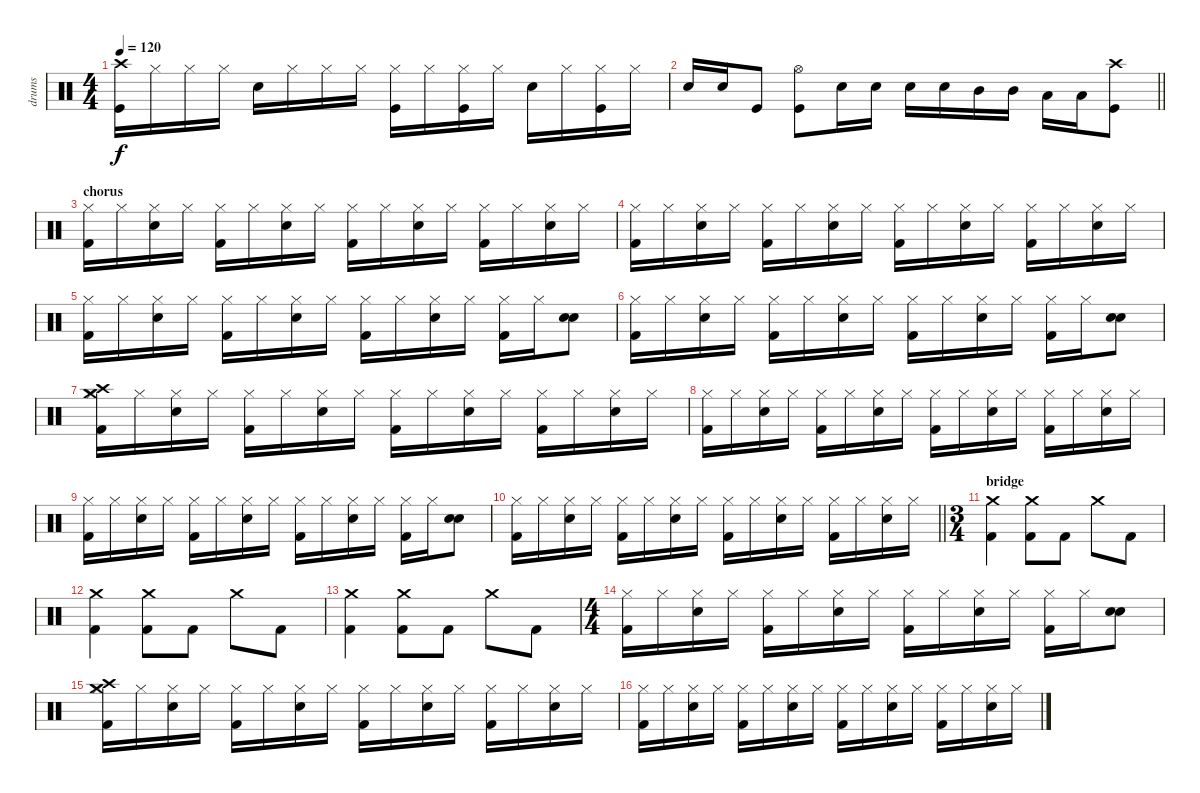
\track ("drums" "drums") {instrument percussion}
\staff {score}
\articulation defaults
\ts (4 4)
\tempo 120
\clef neutral
\ks c
("Crash high (hit)" "Kick (hit)").16{dy f} "Hi-Hat (closed)".16 "Hi-Hat (closed)".16 "Hi-Hat (closed)".16 "Snare (hit) 2".16 "Hi-Hat (closed)".16 "Hi-Hat (closed)".16 "Hi-Hat (closed)".16 ("Hi-Hat (closed)" "Kick (hit)").16 "Hi-Hat (closed)".16 ("Hi-Hat (closed)" "Kick (hit)").16 "Hi-Hat (closed)".16 "Snare (hit) 2".16 "Hi-Hat (closed)".16 ("Hi-Hat (closed)" "Kick (hit)").16 "Hi-Hat (closed)".16 |
\barLineRight lightlight "Snare (hit) 2".16 "Snare (hit) 2".16 "Kick (hit)".8
("Hi-Hat (open)" "Kick (hit)").8 "Snare (hit) 2".16 "Snare (hit) 2".16 "Snare (hit) 2".16 "Snare (hit) 2".16 "Mid Tom (hit)".16 "Mid Tom (hit)".16 "Low Tom (hit)".16 "Low Tom (hit)".16 ("Crash high (hit)" "Kick (hit)").8 |
\section ("" "chorus")
("Hi-Hat (closed)" "Kick (hit) 2").16 "Hi-Hat (closed)".16 ("Hi-Hat (closed)" "Electric Snare (hit)").16 "Hi-Hat (closed)".16 ("Hi-Hat (closed)" "Kick (hit) 2").16 "Hi-Hat (closed)".16 ("Hi-Hat (closed)" "Electric Snare (hit)").16 "Hi-Hat (closed)".16 ("Hi-Hat (closed)" "Kick (hit) 2").16 "Hi-Hat (closed)".16 ("Hi-Hat (closed)" "Electric Snare (hit)").16 "Hi-Hat (closed)".16 ("Hi-Hat (closed)" "Kick (hit) 2").16 "Hi-Hat (closed)".16 ("Hi-Hat (closed)" "Electric Snare (hit)").16 "Hi-Hat (closed)".16 |
("Hi-Hat (closed)" "Kick (hit) 2").16 "Hi-Hat (closed)".16 ("Hi-Hat (closed)" "Electric Snare (hit)").16 "Hi-Hat (closed)".16 ("Hi-Hat (closed)" "Kick (hit) 2").16 "Hi-Hat (closed)".16 ("Hi-Hat (closed)" "Electric Snare (hit)").16 "Hi-Hat (closed)".16 ("Hi-Hat (closed)" "Kick (hit) 2").16 "Hi-Hat (closed)".16 ("Hi-Hat (closed)" "Electric Snare (hit)").16 "Hi-Hat (closed)".16 ("Hi-Hat (closed)" "Kick (hit) 2").16 "Hi-Hat (closed)".16 ("Hi-Hat (closed)" "Electric Snare (hit)").16 "Hi-Hat (closed)".16 |
("Hi-Hat (closed)" "Kick (hit) 2").16 "Hi-Hat (closed)".16 ("Hi-Hat (closed)" "Electric Snare (hit)").16 "Hi-Hat (closed)".16 ("Hi-Hat (closed)" "Kick (hit) 2").16 "Hi-Hat (closed)".16 ("Hi-Hat (closed)" "Electric Snare (hit)").16 "Hi-Hat (closed)".16 ("Hi-Hat (closed)" "Kick (hit) 2").16 "Hi-Hat (closed)".16 ("Hi-Hat (closed)" "Electric Snare (hit)").16 "Hi-Hat (closed)".16 ("Hi-Hat (closed)" "Kick (hit) 2").16 "Hi-Hat (closed)".16 ("Electric Snare (hit)" "Electric Snare (hit)").8 |
("Hi-Hat (closed)" "Kick (hit) 2").16 "Hi-Hat (closed)".16 ("Hi-Hat (closed)" "Electric Snare (hit)").16 "Hi-Hat (closed)".16 ("Hi-Hat (closed)" "Kick (hit) 2").16 "Hi-Hat (closed)".16 ("Hi-Hat (closed)" "Electric Snare (hit)").16 "Hi-Hat (closed)".16 ("Hi-Hat (closed)" "Kick (hit) 2").16 "Hi-Hat (closed)".16 ("Hi-Hat (closed)" "Electric Snare (hit)").16 "Hi-Hat (closed)".16 ("Hi-Hat (closed)" "Kick (hit) 2").16 "Hi-Hat (closed)".16 ("Electric Snare (hit)" "Electric Snare (hit)").8 |
("Crash medium (hit)" "Hi-Hat (closed)" "Crash high (hit)" "Kick (hit) 2").16 "Hi-Hat (closed)".16 ("Hi-Hat (closed)" "Electric Snare (hit)").16 "Hi-Hat (closed)".16 ("Hi-Hat (closed)" "Kick (hit) 2").16 "Hi-Hat (closed)".16 ("Hi-Hat (closed)" "Electric Snare (hit)").16 "Hi-Hat (closed)".16 ("Hi-Hat (closed)" "Kick (hit) 2").16 "Hi-Hat (closed)".16 ("Hi-Hat (closed)" "Electric Snare (hit)").16 "Hi-Hat (closed)".16 ("Hi-Hat (closed)" "Kick (hit) 2").16 "Hi-Hat (closed)".16 ("Hi-Hat (closed)" "Electric Snare (hit)").16 "Hi-Hat (closed)".16 |
("Hi-Hat (closed)" "Kick (hit) 2").16 "Hi-Hat (closed)".16 ("Hi-Hat (closed)" "Electric Snare (hit)").16 "Hi-Hat (closed)".16 ("Hi-Hat (closed)" "Kick (hit) 2").16 "Hi-Hat (closed)".16 ("Hi-Hat (closed)" "Electric Snare (hit)").16 "Hi-Hat (closed)".16 ("Hi-Hat (closed)" "Kick (hit) 2").16 "Hi-Hat (closed)".16 ("Hi-Hat (closed)" "Electric Snare (hit)").16 "Hi-Hat (closed)".16 ("Hi-Hat (closed)" "Kick (hit) 2").16 "Hi-Hat (closed)".16 ("Hi-Hat (closed)" "Electric Snare (hit)").16 "Hi-Hat (closed)".16 |
("Hi-Hat (closed)" "Kick (hit) 2").16 "Hi-Hat (closed)".16 ("Hi-Hat (closed)" "Electric Snare (hit)").16 "Hi-Hat (closed)".16 ("Hi-Hat (closed)" "Kick (hit) 2").16 "Hi-Hat (closed)".16 ("Hi-Hat (closed)" "Electric Snare (hit)").16 "Hi-Hat (closed)".16 ("Hi-Hat (closed)" "Kick (hit) 2").16 "Hi-Hat (closed)".16 ("Hi-Hat (closed)" "Electric Snare (hit)").16 "Hi-Hat (closed)".16 ("Hi-Hat (closed)" "Kick (hit) 2").16 "Hi-Hat (closed)".16 ("Electric Snare (hit)" "Electric Snare (hit)").8 |
\barLineRight lightlight
("Hi-Hat (closed)" "Kick (hit) 2").16 "Hi-Hat (closed)".16 ("Hi-Hat (closed)" "Electric Snare (hit)").16 "Hi-Hat (closed)".16 ("Hi-Hat (closed)" "Kick (hit) 2").16 "Hi-Hat (closed)".16 ("Hi-Hat (closed)" "Electric Snare (hit)").16 "Hi-Hat (closed)".16 ("Hi-Hat (closed)" "Kick (hit) 2").16 "Hi-Hat (closed)".16 ("Hi-Hat (closed)" "Electric Snare (hit)").16 "Hi-Hat (closed)".16 ("Hi-Hat (closed)" "Kick (hit) 2").16 "Hi-Hat (closed)".16 ("Hi-Hat (closed)" "Electric Snare (hit)").16 "Hi-Hat (closed)".16 |
\ts (3 4)
\section ("" "bridge")
("Kick (hit) 2" "Crash medium (hit)").4 ("Kick (hit) 2" "Crash medium (hit)").8 "Kick (hit) 2".8 "Crash medium (hit)".8 "Kick (hit) 2".8 |
("Kick (hit) 2" "Crash medium (hit)").4 ("Kick (hit) 2" "Crash medium (hit)").8 "Kick (hit) 2".8 "Crash medium (hit)".8 "Kick (hit) 2".8 |
("Kick (hit) 2" "Crash medium (hit)").4 ("Kick (hit) 2" "Crash medium (hit)").8 "Kick (hit) 2".8 "Crash medium (hit)".8 "Kick (hit) 2".8 |
\ts (4 4)
("Hi-Hat (closed)" "Kick (hit) 2").16 "Hi-Hat (closed)".16 ("Hi-Hat (closed)" "Electric Snare (hit)").16 "Hi-Hat (closed)".16 ("Hi-Hat (closed)" "Kick (hit) 2").16 "Hi-Hat (closed)".16 ("Hi-Hat (closed)" "Electric Snare (hit)").16 "Hi-Hat (closed)".16 ("Hi-Hat (closed)" "Kick (hit) 2").16 "Hi-Hat (closed)".16 ("Hi-Hat (closed)" "Electric Snare (hit)").16 "Hi-Hat (closed)".16 ("Hi-Hat (closed)" "Kick (hit) 2").16 "Hi-Hat (closed)".16 ("Electric Snare (hit)" "Electric Snare (hit)").8 |
("Crash medium (hit)" "Hi-Hat (closed)" "Crash high (hit)" "Kick (hit) 2").16 "Hi-Hat (closed)".16 ("Hi-Hat (closed)" "Electric Snare (hit)").16 "Hi-Hat (closed)".16 ("Hi-Hat (closed)" "Kick (hit) 2").16 "Hi-Hat (closed)".16 ("Hi-Hat (closed)" "Electric Snare (hit)").16 "Hi-Hat (closed)".16 ("Hi-Hat (closed)" "Kick (hit) 2").16 "Hi-Hat (closed)".16 ("Hi-Hat (closed)" "Electric Snare (hit)").16 "Hi-Hat (closed)".16 ("Hi-Hat (closed)" "Kick (hit) 2").16 "Hi-Hat (closed)".16 ("Hi-Hat (closed)" "Electric Snare (hit)").16 "Hi-Hat (closed)".16 |
("Hi-Hat (closed)" "Kick (hit) 2").16 "Hi-Hat (closed)".16 ("Hi-Hat (closed)" "Electric Snare (hit)").16 "Hi-Hat (closed)".16 ("Hi-Hat (closed)" "Kick (hit) 2").16 "Hi-Hat (closed)".16 ("Hi-Hat (closed)" "Electric Snare (hit)").16 "Hi-Hat (closed)".16 ("Hi-Hat (closed)" "Kick (hit) 2").16 "Hi-Hat (closed)".16 ("Hi-Hat (closed)" "Electric Snare (hit)").16 "Hi-Hat (closed)".16 ("Hi-Hat (closed)" "Kick (hit) 2").16 "Hi-Hat (closed)".16 ("Hi-Hat (closed)" "Electric Snare (hit)").16 "Hi-Hat (closed)".16
